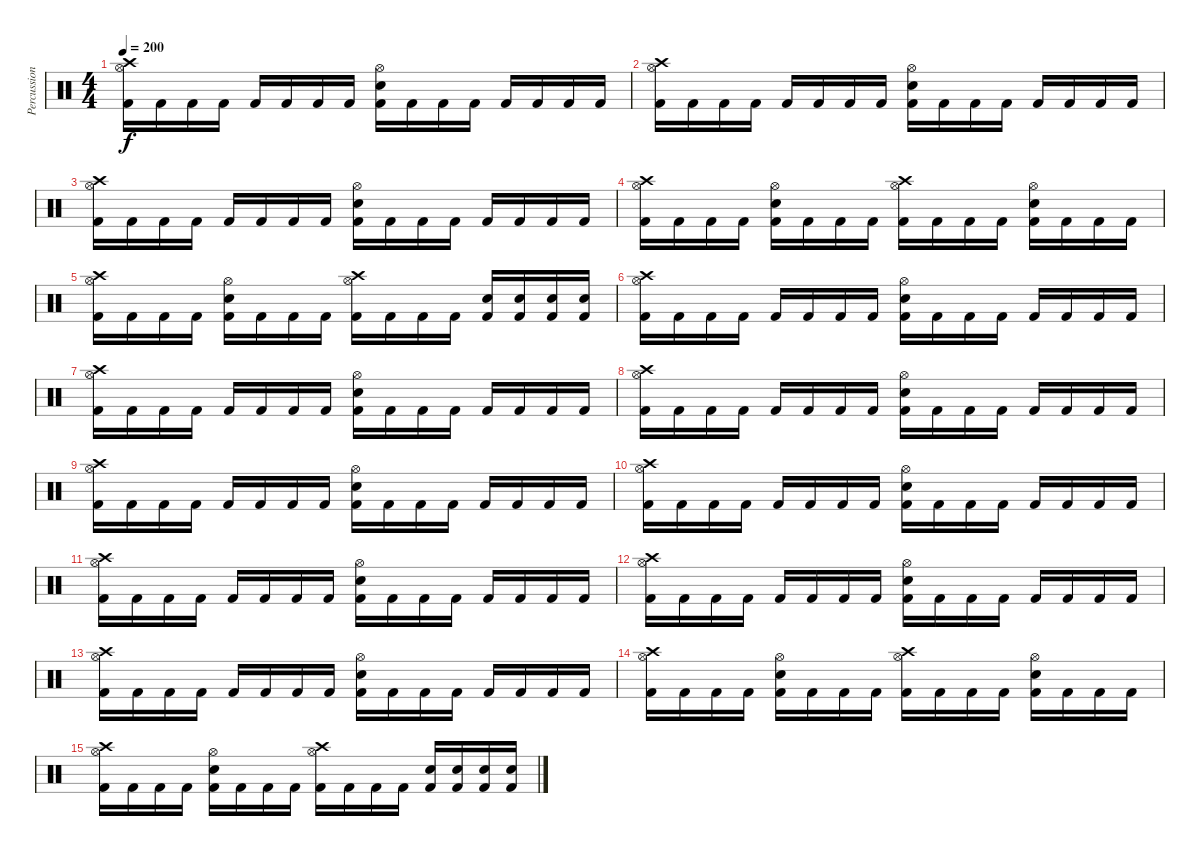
\track ("Percussion" "Percussion") {instrument percussion}
\staff {score}
\articulation defaults
\ts (4 4)
\tempo 200
\clef neutral
\ks c
("Crash high (hit)" "Hi-Hat (open)" "Kick (hit) 2").16{dy f} "Kick (hit) 2".16 "Kick (hit) 2".16 "Kick (hit) 2".16 "Kick (hit) 2".16 "Kick (hit) 2".16 "Kick (hit) 2".16 "Kick (hit) 2".16 ("Hi-Hat (open)" "Snare (hit) 2" "Kick (hit) 2").16 "Kick (hit) 2".16 "Kick (hit) 2".16 "Kick (hit) 2".16 "Kick (hit) 2".16 "Kick (hit) 2".16 "Kick (hit) 2".16 "Kick (hit) 2".16 |
("Crash high (hit)" "Hi-Hat (open)" "Kick (hit) 2").16 "Kick (hit) 2".16 "Kick (hit) 2".16 "Kick (hit) 2".16 "Kick (hit) 2".16 "Kick (hit) 2".16 "Kick (hit) 2".16 "Kick (hit) 2".16 ("Hi-Hat (open)" "Snare (hit) 2" "Kick (hit) 2").16 "Kick (hit) 2".16 "Kick (hit) 2".16 "Kick (hit) 2".16 "Kick (hit) 2".16 "Kick (hit) 2".16 "Kick (hit) 2".16 "Kick (hit) 2".16 |
("Crash high (hit)" "Hi-Hat (open)" "Kick (hit) 2").16 "Kick (hit) 2".16 "Kick (hit) 2".16 "Kick (hit) 2".16 "Kick (hit) 2".16 "Kick (hit) 2".16 "Kick (hit) 2".16 "Kick (hit) 2".16 ("Hi-Hat (open)" "Snare (hit) 2" "Kick (hit) 2").16 "Kick (hit) 2".16 "Kick (hit) 2".16 "Kick (hit) 2".16 "Kick (hit) 2".16 "Kick (hit) 2".16 "Kick (hit) 2".16 "Kick (hit) 2".16 |
("Crash high (hit)" "Hi-Hat (open)" "Kick (hit) 2").16 "Kick (hit) 2".16 "Kick (hit) 2".16 "Kick (hit) 2".16 ("Hi-Hat (open)" "Snare (hit) 2" "Kick (hit) 2").16 "Kick (hit) 2".16 "Kick (hit) 2".16 "Kick (hit) 2".16 ("Crash high (hit)" "Hi-Hat (open)" "Kick (hit) 2").16 "Kick (hit) 2".16 "Kick (hit) 2".16 "Kick (hit) 2".16 ("Hi-Hat (open)" "Snare (hit) 2" "Kick (hit) 2").16 "Kick (hit) 2".16 "Kick (hit) 2".16 "Kick (hit) 2".16 |
("Crash high (hit)" "Hi-Hat (open)" "Kick (hit) 2").16 "Kick (hit) 2".16 "Kick (hit) 2".16 "Kick (hit) 2".16 ("Hi-Hat (open)" "Snare (hit) 2" "Kick (hit) 2").16 "Kick (hit) 2".16 "Kick (hit) 2".16 "Kick (hit) 2".16 ("Crash high (hit)" "Hi-Hat (open)" "Kick (hit) 2").16 "Kick (hit) 2".16 "Kick (hit) 2".16 "Kick (hit) 2".16 ("Snare (hit) 2" "Kick (hit) 2").16 ("Snare (hit) 2" "Kick (hit) 2").16 ("Snare (hit) 2" "Kick (hit) 2").16 ("Snare (hit) 2" "Kick (hit) 2").16 |
("Crash high (hit)" "Hi-Hat (open)" "Kick (hit) 2").16 "Kick (hit) 2".16 "Kick (hit) 2".16 "Kick (hit) 2".16 "Kick (hit) 2".16 "Kick (hit) 2".16 "Kick (hit) 2".16 "Kick (hit) 2".16 ("Hi-Hat (open)" "Snare (hit) 2" "Kick (hit) 2").16 "Kick (hit) 2".16 "Kick (hit) 2".16 "Kick (hit) 2".16 "Kick (hit) 2".16 "Kick (hit) 2".16 "Kick (hit) 2".16 "Kick (hit) 2".16 |
("Crash high (hit)" "Hi-Hat (open)" "Kick (hit) 2").16 "Kick (hit) 2".16 "Kick (hit) 2".16 "Kick (hit) 2".16 "Kick (hit) 2".16 "Kick (hit) 2".16 "Kick (hit) 2".16 "Kick (hit) 2".16 ("Hi-Hat (open)" "Snare (hit) 2" "Kick (hit) 2").16 "Kick (hit) 2".16 "Kick (hit) 2".16 "Kick (hit) 2".16 "Kick (hit) 2".16 "Kick (hit) 2".16 "Kick (hit) 2".16 "Kick (hit) 2".16 |
("Crash high (hit)" "Hi-Hat (open)" "Kick (hit) 2").16 "Kick (hit) 2".16 "Kick (hit) 2".16 "Kick (hit) 2".16 "Kick (hit) 2".16 "Kick (hit) 2".16 "Kick (hit) 2".16 "Kick (hit) 2".16 ("Hi-Hat (open)" "Snare (hit) 2" "Kick (hit) 2").16 "Kick (hit) 2".16 "Kick (hit) 2".16 "Kick (hit) 2".16 "Kick (hit) 2".16 "Kick (hit) 2".16 "Kick (hit) 2".16 "Kick (hit) 2".16 |
("Crash high (hit)" "Hi-Hat (open)" "Kick (hit) 2").16 "Kick (hit) 2".16 "Kick (hit) 2".16 "Kick (hit) 2".16 "Kick (hit) 2".16 "Kick (hit) 2".16 "Kick (hit) 2".16 "Kick (hit) 2".16 ("Hi-Hat (open)" "Snare (hit) 2" "Kick (hit) 2").16 "Kick (hit) 2".16 "Kick (hit) 2".16 "Kick (hit) 2".16 "Kick (hit) 2".16 "Kick (hit) 2".16 "Kick (hit) 2".16 "Kick (hit) 2".16 |
("Crash high (hit)" "Hi-Hat (open)" "Kick (hit) 2").16 "Kick (hit) 2".16 "Kick (hit) 2".16 "Kick (hit) 2".16 "Kick (hit) 2".16 "Kick (hit) 2".16 "Kick (hit) 2".16 "Kick (hit) 2".16 ("Hi-Hat (open)" "Snare (hit) 2" "Kick (hit) 2").16 "Kick (hit) 2".16 "Kick (hit) 2".16 "Kick (hit) 2".16 "Kick (hit) 2".16 "Kick (hit) 2".16 "Kick (hit) 2".16 "Kick (hit) 2".16 |
("Crash high (hit)" "Hi-Hat (open)" "Kick (hit) 2").16 "Kick (hit) 2".16 "Kick (hit) 2".16 "Kick (hit) 2".16 "Kick (hit) 2".16 "Kick (hit) 2".16 "Kick (hit) 2".16 "Kick (hit) 2".16 ("Hi-Hat (open)" "Snare (hit) 2" "Kick (hit) 2").16 "Kick (hit) 2".16 "Kick (hit) 2".16 "Kick (hit) 2".16 "Kick (hit) 2".16 "Kick (hit) 2".16 "Kick (hit) 2".16 "Kick (hit) 2".16 |
("Crash high (hit)" "Hi-Hat (open)" "Kick (hit) 2").16 "Kick (hit) 2".16 "Kick (hit) 2".16 "Kick (hit) 2".16 "Kick (hit) 2".16 "Kick (hit) 2".16 "Kick (hit) 2".16 "Kick (hit) 2".16 ("Hi-Hat (open)" "Snare (hit) 2" "Kick (hit) 2").16 "Kick (hit) 2".16 "Kick (hit) 2".16 "Kick (hit) 2".16 "Kick (hit) 2".16 "Kick (hit) 2".16 "Kick (hit) 2".16 "Kick (hit) 2".16 |
("Crash high (hit)" "Hi-Hat (open)" "Kick (hit) 2").16 "Kick (hit) 2".16 "Kick (hit) 2".16 "Kick (hit) 2".16 "Kick (hit) 2".16 "Kick (hit) 2".16 "Kick (hit) 2".16 "Kick (hit) 2".16 ("Hi-Hat (open)" "Snare (hit) 2" "Kick (hit) 2").16 "Kick (hit) 2".16 "Kick (hit) 2".16 "Kick (hit) 2".16 "Kick (hit) 2".16 "Kick (hit) 2".16 "Kick (hit) 2".16 "Kick (hit) 2".16 |
("Crash high (hit)" "Hi-Hat (open)" "Kick (hit) 2").16 "Kick (hit) 2".16 "Kick (hit) 2".16 "Kick (hit) 2".16 ("Hi-Hat (open)" "Snare (hit) 2" "Kick (hit) 2").16 "Kick (hit) 2".16 "Kick (hit) 2".16 "Kick (hit) 2".16 ("Crash high (hit)" "Hi-Hat (open)" "Kick (hit) 2").16 "Kick (hit) 2".16 "Kick (hit) 2".16 "Kick (hit) 2".16 ("Hi-Hat (open)" "Snare (hit) 2" "Kick (hit) 2").16 "Kick (hit) 2".16 "Kick (hit) 2".16 "Kick (hit) 2".16 |
("Crash high (hit)" "Hi-Hat (open)" "Kick (hit) 2").16 "Kick (hit) 2".16 "Kick (hit) 2".16 "Kick (hit) 2".16 ("Hi-Hat (open)" "Snare (hit) 2" "Kick (hit) 2").16 "Kick (hit) 2".16 "Kick (hit) 2".16 "Kick (hit) 2".16 ("Crash high (hit)" "Hi-Hat (open)" "Kick (hit) 2").16 "Kick (hit) 2".16 "Kick (hit) 2".16 "Kick (hit) 2".16 ("Snare (hit) 2" "Kick (hit) 2").16 ("Snare (hit) 2" "Kick (hit) 2").16 ("Snare (hit) 2" "Kick (hit) 2").16 ("Snare (hit) 2" "Kick (hit) 2").16
